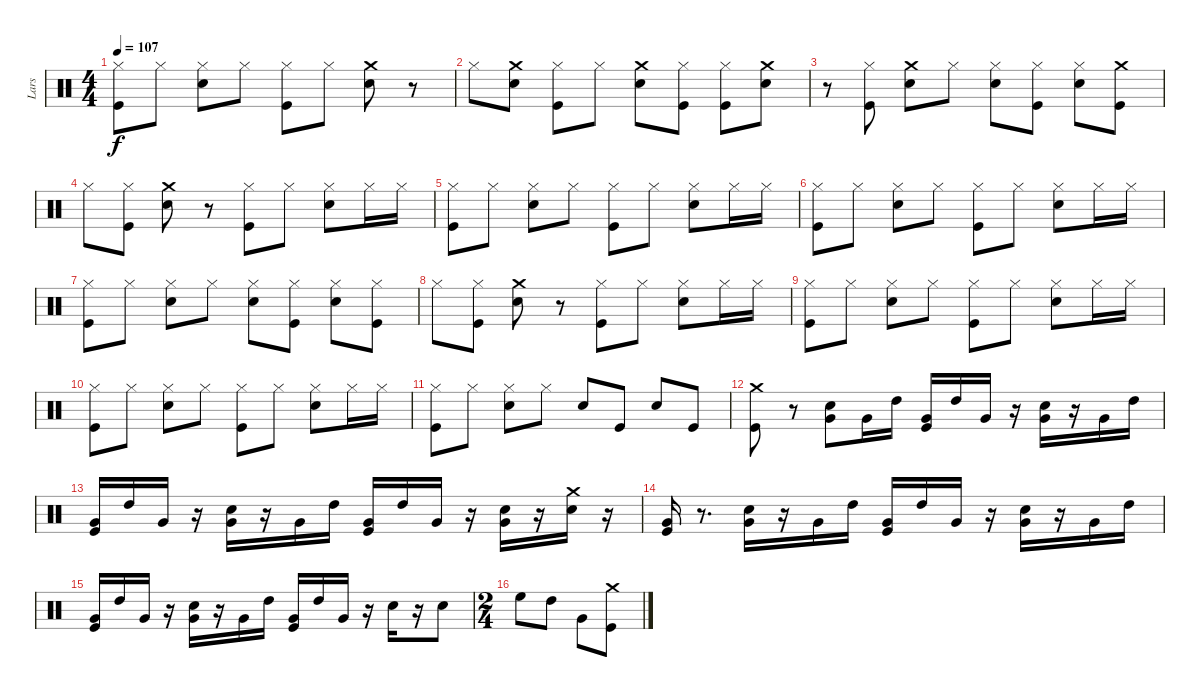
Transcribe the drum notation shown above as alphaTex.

\track ("Lars" "Lars") {instrument percussion}
\staff {score}
\articulation defaults
\ts (4 4)
\tempo 107
\clef neutral
\ks c
("Kick (hit)" "Hi-Hat (closed)").8{dy f} "Hi-Hat (closed)".8 ("Snare (hit) 2" "Hi-Hat (closed)").8 "Hi-Hat (closed)".8 ("Kick (hit)" "Hi-Hat (closed)").8 "Hi-Hat (closed)".8 ("Crash medium (hit)" "Snare (hit) 2").8 r.8 |
"Hi-Hat (closed)".8 ("Crash medium (hit)" "Snare (hit) 2").8 ("Kick (hit)" "Hi-Hat (closed)").8 "Hi-Hat (closed)".8 ("Snare (hit) 2" "Crash medium (hit)").8 ("Hi-Hat (closed)" "Kick (hit)").8 ("Hi-Hat (closed)" "Kick (hit)").8 ("Crash medium (hit)" "Snare (hit) 2").8 |
r.8 ("Kick (hit)" "Hi-Hat (closed)").8 ("Crash medium (hit)" "Snare (hit) 2").8 "Hi-Hat (closed)".8 ("Hi-Hat (closed)" "Snare (hit) 2").8 ("Hi-Hat (closed)" "Kick (hit)").8 ("Hi-Hat (closed)" "Snare (hit) 2").8 ("Crash medium (hit)" "Kick (hit)").8 |
"Hi-Hat (closed)".8 ("Kick (hit)" "Hi-Hat (closed)").8 ("Crash medium (hit)" "Snare (hit) 2").8 r.8 ("Hi-Hat (closed)" "Kick (hit)").8 "Hi-Hat (closed)".8 ("Hi-Hat (closed)" "Snare (hit) 2").8 "Hi-Hat (closed)".16 "Hi-Hat (closed)".16 |
("Hi-Hat (closed)" "Kick (hit)").8 "Hi-Hat (closed)".8 ("Snare (hit) 2" "Hi-Hat (closed)").8 "Hi-Hat (closed)".8 ("Kick (hit)" "Hi-Hat (closed)").8 "Hi-Hat (closed)".8 ("Snare (hit) 2" "Hi-Hat (closed)").8 "Hi-Hat (closed)".16 "Hi-Hat (closed)".16 |
("Hi-Hat (closed)" "Kick (hit)").8 "Hi-Hat (closed)".8 ("Snare (hit) 2" "Hi-Hat (closed)").8 "Hi-Hat (closed)".8 ("Hi-Hat (closed)" "Kick (hit)").8 "Hi-Hat (closed)".8 ("Snare (hit) 2" "Hi-Hat (closed)").8 "Hi-Hat (closed)".16 "Hi-Hat (closed)".16 |
("Hi-Hat (closed)" "Kick (hit)").8 "Hi-Hat (closed)".8 ("Snare (hit) 2" "Hi-Hat (closed)").8 "Hi-Hat (closed)".8 ("Snare (hit) 2" "Hi-Hat (closed)").8 ("Hi-Hat (closed)" "Kick (hit)").8 ("Snare (hit) 2" "Hi-Hat (closed)").8 ("Kick (hit)" "Hi-Hat (closed)").8 |
"Hi-Hat (closed)".8 ("Hi-Hat (closed)" "Kick (hit)").8 ("Crash medium (hit)" "Snare (hit) 2").8 r.8 ("Hi-Hat (closed)" "Kick (hit)").8 "Hi-Hat (closed)".8 ("Snare (hit) 2" "Hi-Hat (closed)").8 "Hi-Hat (closed)".16 "Hi-Hat (closed)".16 |
("Hi-Hat (closed)" "Kick (hit)").8 "Hi-Hat (closed)".8 ("Snare (hit) 2" "Hi-Hat (closed)").8 "Hi-Hat (closed)".8 ("Kick (hit)" "Hi-Hat (closed)").8 "Hi-Hat (closed)".8 ("Hi-Hat (closed)" "Snare (hit) 2").8 "Hi-Hat (closed)".16 "Hi-Hat (closed)".16 |
("Hi-Hat (closed)" "Kick (hit)").8 "Hi-Hat (closed)".8 ("Snare (hit) 2" "Hi-Hat (closed)").8 "Hi-Hat (closed)".8 ("Hi-Hat (closed)" "Kick (hit)").8 "Hi-Hat (closed)".8 ("Hi-Hat (closed)" "Snare (hit) 2").8 "Hi-Hat (closed)".16 "Hi-Hat (closed)".16 |
("Hi-Hat (closed)" "Kick (hit)").8 "Hi-Hat (closed)".8 ("Snare (hit) 2" "Hi-Hat (closed)").8 "Hi-Hat (closed)".8 "Snare (hit) 2".8 "Kick (hit)".8 "Snare (hit) 2".8 "Kick (hit)".8 |
("Crash medium (hit)" "Kick (hit)").8 r.8 ("Very Low Tom (hit)" "Snare (hit) 2").8 "Very Low Tom (hit)".16 "High Tom (hit)".16 ("Very Low Tom (hit)" "Kick (hit)").16 "High Tom (hit)".16 "Very Low Tom (hit)".16 r.16 ("Very Low Tom (hit)" "Snare (hit) 2").16 r.16 "Very Low Tom (hit)".16 "High Tom (hit)".16 |
("Very Low Tom (hit)" "Kick (hit)").16 "High Tom (hit)".16 "Very Low Tom (hit)".16 r.16 ("Very Low Tom (hit)" "Snare (hit) 2").16 r.16 "Very Low Tom (hit)".16 "High Tom (hit)".16 ("Very Low Tom (hit)" "Kick (hit)").16 "High Tom (hit)".16 "Very Low Tom (hit)".16 r.16 ("Very Low Tom (hit)" "Snare (hit) 2").16 r.16 ("Crash medium (hit)" "Snare (hit) 2").16 r.16 |
("Very Low Tom (hit)" "Kick (hit)").16 r.8{d} ("Very Low Tom (hit)" "Snare (hit) 2").16 r.16 "Very Low Tom (hit)".16 "High Tom (hit)".16 ("Very Low Tom (hit)" "Kick (hit)").16 "High Tom (hit)".16 "Very Low Tom (hit)".16 r.16 ("Very Low Tom (hit)" "Snare (hit) 2").16 r.16 "Very Low Tom (hit)".16 "High Tom (hit)".16 |
("Very Low Tom (hit)" "Kick (hit)").16 "High Tom (hit)".16 "Very Low Tom (hit)".16 r.16 ("Very Low Tom (hit)" "Snare (hit) 2").16 r.16 "Very Low Tom (hit)".16 "High Tom (hit)".16 ("Very Low Tom (hit)" "Kick (hit)").16 "High Tom (hit)".16 "Very Low Tom (hit)".16 r.16 "Snare (hit) 2".16 r.16 "Snare (hit) 2".8 |
\ts (2 4)
"High Floor Tom (hit)".8 "High Tom (hit)".8 "Very Low Tom (hit)".8 ("Crash medium (hit)" "Kick (hit)").8
